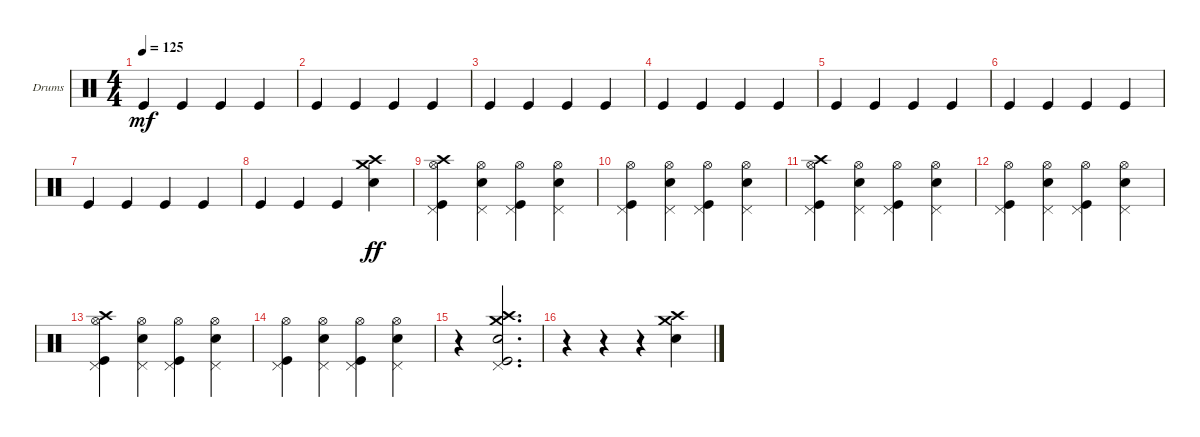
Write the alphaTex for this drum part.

\defaultSystemsLayout 4
\bracketExtendMode groupsimilarinstruments
\firstSystemTrackNameOrientation horizontal
\otherSystemsTrackNameOrientation horizontal
\track ("Drums" "Drums") {instrument percussion}
\staff {score}
\articulation defaults
\ts (4 4)
\tempo 125
\clef neutral
\ks c "Kick (hit)".4{dy mf} "Kick (hit)".4 "Kick (hit)".4 "Kick (hit)".4
|
"Kick (hit)".4 "Kick (hit)".4 "Kick (hit)".4 "Kick (hit)".4 |
"Kick (hit)".4 "Kick (hit)".4 "Kick (hit)".4 "Kick (hit)".4 |
"Kick (hit)".4 "Kick (hit)".4 "Kick (hit)".4 "Kick (hit)".4 |
"Kick (hit)".4 "Kick (hit)".4 "Kick (hit)".4 "Kick (hit)".4 |
"Kick (hit)".4 "Kick (hit)".4 "Kick (hit)".4 "Kick (hit)".4 |
"Kick (hit)".4 "Kick (hit)".4 "Kick (hit)".4 "Kick (hit)".4 |
"Kick (hit)".4 "Kick (hit)".4 "Kick (hit)".4 ("Crash high (hit)" "Crash medium (hit)" "Snare (hit) 2").4{dy ff} |
("Kick (hit)" "Pedal Hi-Hat (hit)" "Hi-Hat (open)" "Crash high (hit)").4 ("Snare (hit) 2" "Pedal Hi-Hat (hit)" "Hi-Hat (open)").4 ("Kick (hit)" "Pedal Hi-Hat (hit)" "Hi-Hat (open)").4 ("Snare (hit) 2" "Pedal Hi-Hat (hit)" "Hi-Hat (open)").4 |
("Kick (hit)" "Pedal Hi-Hat (hit)" "Hi-Hat (open)").4 ("Snare (hit) 2" "Pedal Hi-Hat (hit)" "Hi-Hat (open)").4 ("Kick (hit)" "Pedal Hi-Hat (hit)" "Hi-Hat (open)").4 ("Snare (hit) 2" "Pedal Hi-Hat (hit)" "Hi-Hat (open)").4 |
("Kick (hit)" "Pedal Hi-Hat (hit)" "Hi-Hat (open)" "Crash high (hit)").4 ("Snare (hit) 2" "Pedal Hi-Hat (hit)" "Hi-Hat (open)").4 ("Kick (hit)" "Pedal Hi-Hat (hit)" "Hi-Hat (open)").4 ("Snare (hit) 2" "Pedal Hi-Hat (hit)" "Hi-Hat (open)").4 |
("Kick (hit)" "Pedal Hi-Hat (hit)" "Hi-Hat (open)").4 ("Snare (hit) 2" "Pedal Hi-Hat (hit)" "Hi-Hat (open)").4 ("Kick (hit)" "Pedal Hi-Hat (hit)" "Hi-Hat (open)").4 ("Snare (hit) 2" "Pedal Hi-Hat (hit)" "Hi-Hat (open)").4 |
("Kick (hit)" "Pedal Hi-Hat (hit)" "Hi-Hat (open)" "Crash high (hit)").4 ("Snare (hit) 2" "Pedal Hi-Hat (hit)" "Hi-Hat (open)").4 ("Kick (hit)" "Pedal Hi-Hat (hit)" "Hi-Hat (open)").4 ("Snare (hit) 2" "Pedal Hi-Hat (hit)" "Hi-Hat (open)").4 |
("Kick (hit)" "Pedal Hi-Hat (hit)" "Hi-Hat (open)").4 ("Snare (hit) 2" "Pedal Hi-Hat (hit)" "Hi-Hat (open)").4 ("Kick (hit)" "Pedal Hi-Hat (hit)" "Hi-Hat (open)").4 ("Snare (hit) 2" "Pedal Hi-Hat (hit)" "Hi-Hat (open)").4 |
r.4 ("Kick (hit)" "Snare (hit) 2" "Pedal Hi-Hat (hit)" "Crash medium (hit)" "Crash high (hit)").2{d} |
r.4 r.4 r.4 ("Crash high (hit)" "Crash medium (hit)" "Snare (hit) 2").4
